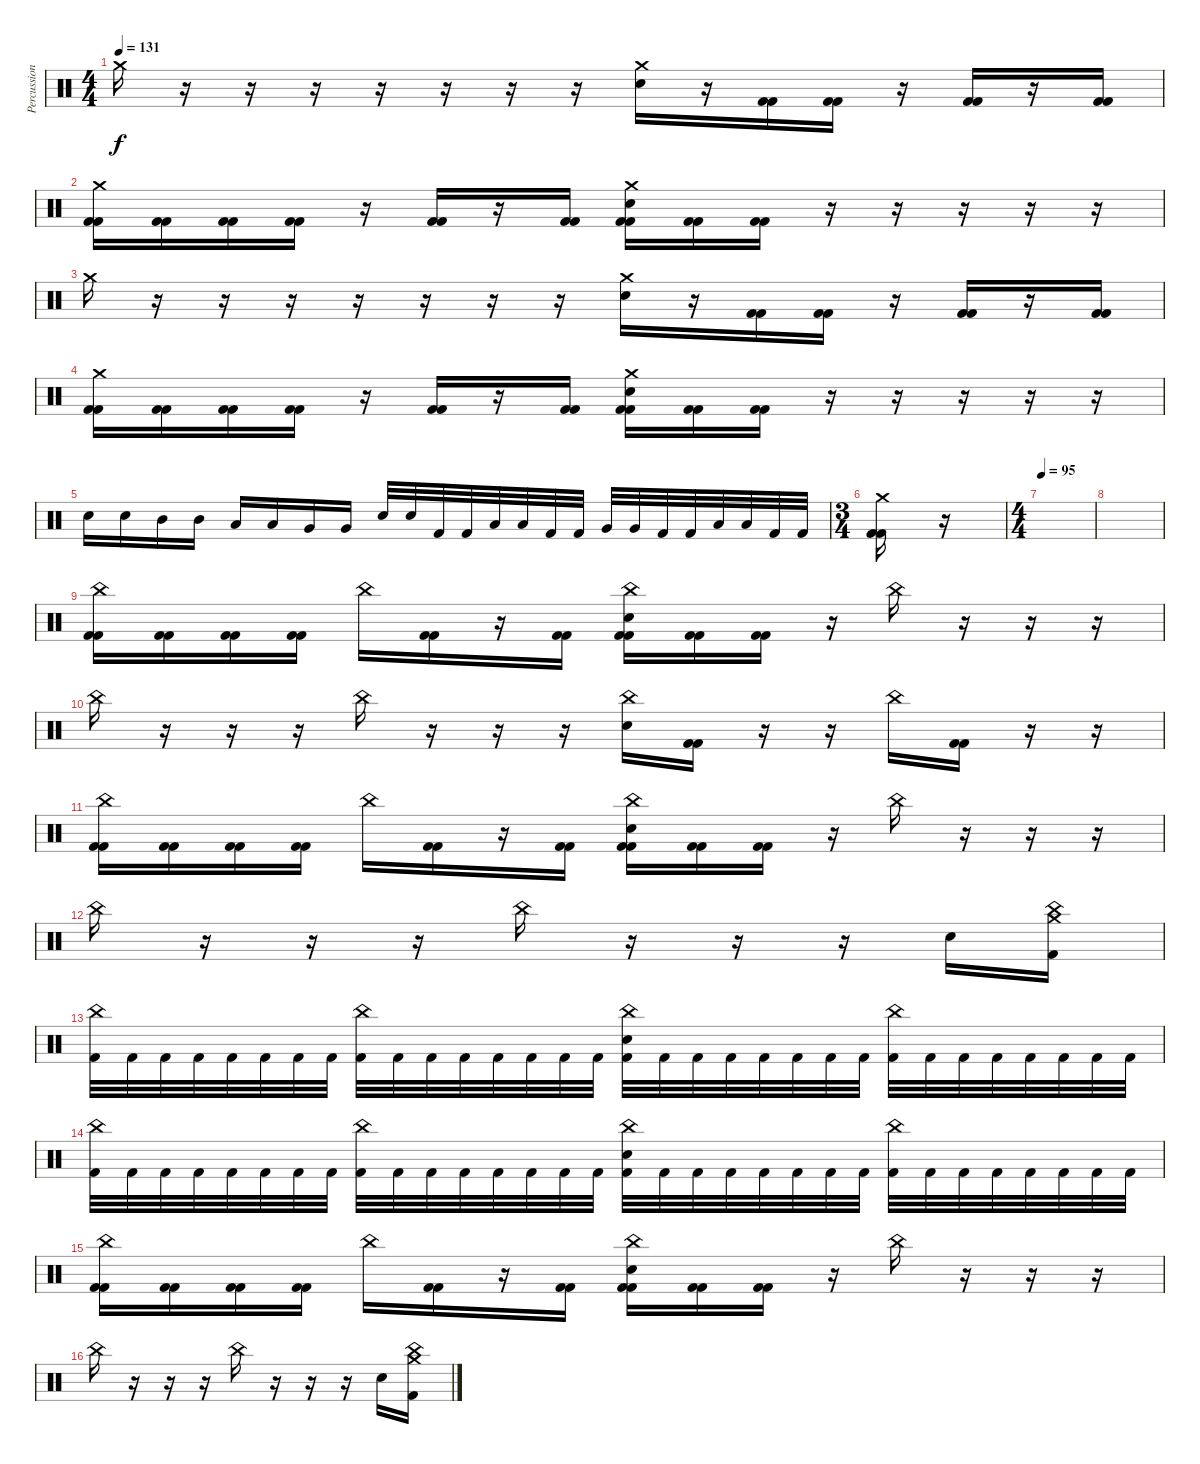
\track ("Percussion" "Percussion") {instrument percussion}
\staff {score}
\articulation defaults
\ts (4 4)
\tempo 131
\clef neutral
\ks c "Crash medium (hit)".16{dy f}
r.16 r.16 r.16 r.16 r.16 r.16 r.16 ("Crash medium (hit)" "Electric Snare (hit)").16 r.16 ("Kick (hit) 2" "Kick (hit) 2").16 ("Kick (hit) 2" "Kick (hit) 2").16 r.16 ("Kick (hit) 2" "Kick (hit) 2").16 r.16 ("Kick (hit) 2" "Kick (hit) 2").16 |
("Crash medium (hit)" "Kick (hit) 2" "Kick (hit) 2").16 ("Kick (hit) 2" "Kick (hit) 2").16 ("Kick (hit) 2" "Kick (hit) 2").16 ("Kick (hit) 2" "Kick (hit) 2").16 r.16 ("Kick (hit) 2" "Kick (hit) 2").16 r.16 ("Kick (hit) 2" "Kick (hit) 2").16 ("Crash medium (hit)" "Electric Snare (hit)" "Kick (hit) 2" "Kick (hit) 2").16 ("Kick (hit) 2" "Kick (hit) 2").16 ("Kick (hit) 2" "Kick (hit) 2").16 r.16 r.16 r.16 r.16 r.16 |
"Crash medium (hit)".16 r.16 r.16 r.16 r.16 r.16 r.16 r.16 ("Crash medium (hit)" "Electric Snare (hit)").16 r.16 ("Kick (hit) 2" "Kick (hit) 2").16 ("Kick (hit) 2" "Kick (hit) 2").16 r.16 ("Kick (hit) 2" "Kick (hit) 2").16 r.16 ("Kick (hit) 2" "Kick (hit) 2").16 |
("Crash medium (hit)" "Kick (hit) 2" "Kick (hit) 2").16 ("Kick (hit) 2" "Kick (hit) 2").16 ("Kick (hit) 2" "Kick (hit) 2").16 ("Kick (hit) 2" "Kick (hit) 2").16 r.16 ("Kick (hit) 2" "Kick (hit) 2").16 r.16 ("Kick (hit) 2" "Kick (hit) 2").16 ("Crash medium (hit)" "Electric Snare (hit)" "Kick (hit) 2" "Kick (hit) 2").16 ("Kick (hit) 2" "Kick (hit) 2").16 ("Kick (hit) 2" "Kick (hit) 2").16 r.16 r.16 r.16 r.16 r.16 |
"Electric Snare (hit)".16 "Electric Snare (hit)".16 "Mid Tom (hit)".16 "Mid Tom (hit)".16 "Low Tom (hit)".16 "Low Tom (hit)".16 "Very Low Tom (hit)".16 "Very Low Tom (hit)".16 "Electric Snare (hit)".32 "Electric Snare (hit)".32 "Kick (hit) 2".32 "Kick (hit) 2".32 "Low Tom (hit)".32 "Low Tom (hit)".32 "Kick (hit) 2".32 "Kick (hit) 2".32 "Very Low Tom (hit)".32 "Very Low Tom (hit)".32 "Kick (hit) 2".32 "Kick (hit) 2".32 "Low Floor Tom (hit)".32 "Low Floor Tom (hit)".32 "Kick (hit) 2".32 "Kick (hit) 2".32 |
\ts (3 4)
("Crash medium (hit)" "Kick (hit) 2" "Kick (hit) 2").16 r.16{volume 0} |
\ts (4 4)
\tempo 95
|
|
("China (hit)" "Kick (hit) 2" "Kick (hit) 2").16{volume 13} ("Kick (hit) 2" "Kick (hit) 2").16 ("Kick (hit) 2" "Kick (hit) 2").16 ("Kick (hit) 2" "Kick (hit) 2").16 "China (hit)".16 ("Kick (hit) 2" "Kick (hit) 2").16 r.16 ("Kick (hit) 2" "Kick (hit) 2").16 ("China (hit)" "Electric Snare (hit)" "Kick (hit) 2" "Kick (hit) 2").16 ("Kick (hit) 2" "Kick (hit) 2").16 ("Kick (hit) 2" "Kick (hit) 2").16 r.16 "China (hit)".16 r.16 r.16 r.16 |
"China (hit)".16 r.16 r.16 r.16 "China (hit)".16 r.16 r.16 r.16 ("China (hit)" "Electric Snare (hit)").16 ("Kick (hit) 2" "Kick (hit) 2").16 r.16 r.16 "China (hit)".16 ("Kick (hit) 2" "Kick (hit) 2").16 r.16 r.16 |
("China (hit)" "Kick (hit) 2" "Kick (hit) 2").16{volume 13} ("Kick (hit) 2" "Kick (hit) 2").16 ("Kick (hit) 2" "Kick (hit) 2").16 ("Kick (hit) 2" "Kick (hit) 2").16 "China (hit)".16 ("Kick (hit) 2" "Kick (hit) 2").16 r.16 ("Kick (hit) 2" "Kick (hit) 2").16 ("China (hit)" "Electric Snare (hit)" "Kick (hit) 2" "Kick (hit) 2").16 ("Kick (hit) 2" "Kick (hit) 2").16 ("Kick (hit) 2" "Kick (hit) 2").16 r.16 "China (hit)".16 r.16 r.16 r.16 |
"China (hit)".16 r.16 r.16 r.16 "China (hit)".16 r.16 r.16 r.16 "Electric Snare (hit)".16 ("China (hit)" "Crash medium (hit)" "Kick (hit) 2").16 |
("China (hit)" "Kick (hit) 2").32 "Kick (hit) 2".32 "Kick (hit) 2".32 "Kick (hit) 2".32 "Kick (hit) 2".32 "Kick (hit) 2".32 "Kick (hit) 2".32 "Kick (hit) 2".32 ("China (hit)" "Kick (hit) 2").32 "Kick (hit) 2".32 "Kick (hit) 2".32 "Kick (hit) 2".32 "Kick (hit) 2".32 "Kick (hit) 2".32 "Kick (hit) 2".32 "Kick (hit) 2".32 ("China (hit)" "Electric Snare (hit)" "Kick (hit) 2").32 "Kick (hit) 2".32 "Kick (hit) 2".32 "Kick (hit) 2".32 "Kick (hit) 2".32 "Kick (hit) 2".32 "Kick (hit) 2".32 "Kick (hit) 2".32 ("China (hit)" "Kick (hit) 2").32 "Kick (hit) 2".32 "Kick (hit) 2".32 "Kick (hit) 2".32 "Kick (hit) 2".32 "Kick (hit) 2".32 "Kick (hit) 2".32 "Kick (hit) 2".32 |
("China (hit)" "Kick (hit) 2").32 "Kick (hit) 2".32 "Kick (hit) 2".32 "Kick (hit) 2".32 "Kick (hit) 2".32 "Kick (hit) 2".32 "Kick (hit) 2".32 "Kick (hit) 2".32 ("China (hit)" "Kick (hit) 2").32 "Kick (hit) 2".32 "Kick (hit) 2".32 "Kick (hit) 2".32 "Kick (hit) 2".32 "Kick (hit) 2".32 "Kick (hit) 2".32 "Kick (hit) 2".32 ("China (hit)" "Electric Snare (hit)" "Kick (hit) 2").32 "Kick (hit) 2".32 "Kick (hit) 2".32 "Kick (hit) 2".32 "Kick (hit) 2".32 "Kick (hit) 2".32 "Kick (hit) 2".32 "Kick (hit) 2".32 ("China (hit)" "Kick (hit) 2").32 "Kick (hit) 2".32 "Kick (hit) 2".32 "Kick (hit) 2".32 "Kick (hit) 2".32 "Kick (hit) 2".32 "Kick (hit) 2".32 "Kick (hit) 2".32 |
("China (hit)" "Kick (hit) 2" "Kick (hit) 2").16{volume 13} ("Kick (hit) 2" "Kick (hit) 2").16 ("Kick (hit) 2" "Kick (hit) 2").16 ("Kick (hit) 2" "Kick (hit) 2").16 "China (hit)".16 ("Kick (hit) 2" "Kick (hit) 2").16 r.16 ("Kick (hit) 2" "Kick (hit) 2").16 ("China (hit)" "Electric Snare (hit)" "Kick (hit) 2" "Kick (hit) 2").16 ("Kick (hit) 2" "Kick (hit) 2").16 ("Kick (hit) 2" "Kick (hit) 2").16 r.16 "China (hit)".16 r.16 r.16 r.16 |
"China (hit)".16 r.16 r.16 r.16 "China (hit)".16 r.16 r.16 r.16 "Electric Snare (hit)".16 ("China (hit)" "Crash medium (hit)" "Kick (hit) 2").16
